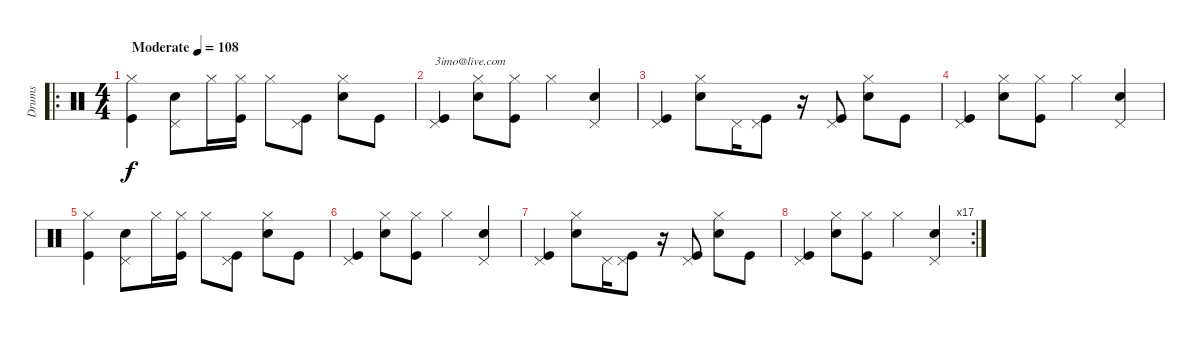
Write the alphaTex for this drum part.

\track ("Drums" "Drums") {instrument percussion}
\staff {score}
\articulation defaults
\ro
\ts (4 4)
\tempo (108 "Moderate")
\clef neutral
\ks c
("Hi-Hat (closed)" "Kick (hit)").4{dy f} ("Pedal Hi-Hat (hit)" "Snare (hit) 2").8 "Hi-Hat (closed)".16 ("Hi-Hat (closed)" "Kick (hit)").16 "Hi-Hat (closed)".8 ("Pedal Hi-Hat (hit)" "Kick (hit)").8 ("Hi-Hat (closed)" "Snare (hit) 2").8 "Kick (hit)".8 |
("Pedal Hi-Hat (hit)" "Kick (hit)").4{txt "3imo@live.com"} ("Hi-Hat (closed)" "Snare (hit) 2").8 ("Hi-Hat (closed)" "Kick (hit)").8 "Hi-Hat (closed)".4 ("Pedal Hi-Hat (hit)" "Snare (hit) 2").4 |
("Pedal Hi-Hat (hit)" "Kick (hit)").4 ("Hi-Hat (closed)" "Snare (hit) 2").8 "Pedal Hi-Hat (hit)".16 ("Pedal Hi-Hat (hit)" "Kick (hit)").8 r.16 ("Pedal Hi-Hat (hit)" "Kick (hit)").8 ("Hi-Hat (closed)" "Snare (hit) 2").8 "Kick (hit)".8 |
("Pedal Hi-Hat (hit)" "Kick (hit)").4 ("Hi-Hat (closed)" "Snare (hit) 2").8 ("Hi-Hat (closed)" "Kick (hit)").8 "Hi-Hat (closed)".4 ("Pedal Hi-Hat (hit)" "Snare (hit) 2").4 |
("Hi-Hat (closed)" "Kick (hit)").4 ("Pedal Hi-Hat (hit)" "Snare (hit) 2").8 "Hi-Hat (closed)".16 ("Hi-Hat (closed)" "Kick (hit)").16 "Hi-Hat (closed)".8 ("Pedal Hi-Hat (hit)" "Kick (hit)").8 ("Hi-Hat (closed)" "Snare (hit) 2").8 "Kick (hit)".8 |
("Pedal Hi-Hat (hit)" "Kick (hit)").4 ("Hi-Hat (closed)" "Snare (hit) 2").8 ("Hi-Hat (closed)" "Kick (hit)").8 "Hi-Hat (closed)".4 ("Pedal Hi-Hat (hit)" "Snare (hit) 2").4 |
("Pedal Hi-Hat (hit)" "Kick (hit)").4 ("Hi-Hat (closed)" "Snare (hit) 2").8 "Pedal Hi-Hat (hit)".16 ("Pedal Hi-Hat (hit)" "Kick (hit)").8 r.16 ("Pedal Hi-Hat (hit)" "Kick (hit)").8 ("Hi-Hat (closed)" "Snare (hit) 2").8 "Kick (hit)".8 |
\rc 17
("Pedal Hi-Hat (hit)" "Kick (hit)").4 ("Hi-Hat (closed)" "Snare (hit) 2").8 ("Hi-Hat (closed)" "Kick (hit)").8 "Hi-Hat (closed)".4 ("Pedal Hi-Hat (hit)" "Snare (hit) 2").4
